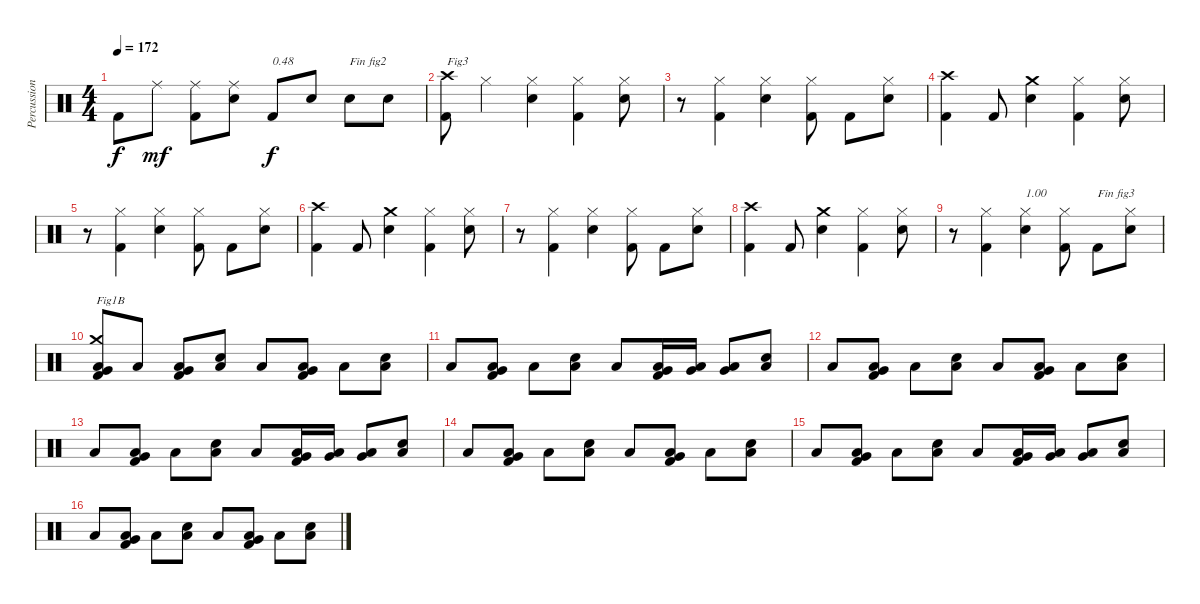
\track ("Percussions" "Percussion") {instrument percussion}
\staff {score}
\articulation defaults
\ts (4 4)
\tempo 172
\clef neutral
\ks c "Kick (hit) 2".8{dy f} "Ride (middle)".8{dy mf}
("Kick (hit) 2" "Ride (middle)").8 ("Electric Snare (hit)" "Ride (middle)").8 "Kick (hit) 2".8{txt "0.48" dy f} "Electric Snare (hit)".8 "Electric Snare (hit)".8{txt "Fin fig2"} "Electric Snare (hit)".8 |
("Kick (hit) 2" "Crash high (hit)").8{txt "Fig3"} "Hi-Hat (closed)".4 ("Electric Snare (hit)" "Hi-Hat (closed)").4 ("Kick (hit) 2" "Hi-Hat (closed)").4 ("Electric Snare (hit)" "Hi-Hat (closed)").8 |
r.8 ("Kick (hit) 2" "Hi-Hat (closed)").4 ("Electric Snare (hit)" "Hi-Hat (closed)").4 ("Kick (hit) 2" "Hi-Hat (closed)").8 "Kick (hit) 2".8 ("Electric Snare (hit)" "Hi-Hat (closed)").8 |
("Kick (hit) 2" "Crash high (hit)").4 "Kick (hit) 2".8 ("Electric Snare (hit)" "Crash medium (hit)").4 ("Kick (hit) 2" "Hi-Hat (closed)").4 ("Electric Snare (hit)" "Hi-Hat (closed)").8 |
r.8 ("Kick (hit) 2" "Hi-Hat (closed)").4 ("Electric Snare (hit)" "Hi-Hat (closed)").4 ("Kick (hit) 2" "Hi-Hat (closed)").8 "Kick (hit) 2".8 ("Electric Snare (hit)" "Hi-Hat (closed)").8 |
("Kick (hit) 2" "Crash high (hit)").4 "Kick (hit) 2".8 ("Electric Snare (hit)" "Crash medium (hit)").4 ("Kick (hit) 2" "Hi-Hat (closed)").4 ("Electric Snare (hit)" "Hi-Hat (closed)").8 |
r.8 ("Kick (hit) 2" "Hi-Hat (closed)").4 ("Electric Snare (hit)" "Hi-Hat (closed)").4 ("Kick (hit) 2" "Hi-Hat (closed)").8 "Kick (hit) 2".8 ("Electric Snare (hit)" "Hi-Hat (closed)").8 |
("Kick (hit) 2" "Crash high (hit)").4 "Kick (hit) 2".8 ("Electric Snare (hit)" "Crash medium (hit)").4 ("Kick (hit) 2" "Hi-Hat (closed)").4 ("Electric Snare (hit)" "Hi-Hat (closed)").8 |
r.8 ("Kick (hit) 2" "Hi-Hat (closed)").4 ("Electric Snare (hit)" "Hi-Hat (closed)").4{txt "1.00"} ("Kick (hit) 2" "Hi-Hat (closed)").8 "Kick (hit) 2".8{txt "Fin fig3"} ("Electric Snare (hit)" "Hi-Hat (closed)").8 |
("Kick (hit) 2" "Low Floor Tom (hit)" "Very Low Tom (hit)" "Crash medium (hit)").8{txt "Fig1B"} "Low Floor Tom (hit)".8 ("Kick (hit) 2" "Low Floor Tom (hit)" "Very Low Tom (hit)").8 ("Electric Snare (hit)" "Low Floor Tom (hit)").8 "Low Floor Tom (hit)".8 ("Kick (hit) 2" "Low Floor Tom (hit)" "Very Low Tom (hit)").8 "Low Floor Tom (hit)".8 ("Electric Snare (hit)" "Low Floor Tom (hit)").8 |
"Low Floor Tom (hit)".8 ("Kick (hit) 2" "Low Floor Tom (hit)" "Very Low Tom (hit)").8 "Low Floor Tom (hit)".8 ("Electric Snare (hit)" "Low Floor Tom (hit)").8 "Low Floor Tom (hit)".8 ("Kick (hit) 2" "Low Floor Tom (hit)" "Very Low Tom (hit)").16 ("Low Floor Tom (hit)" "Very Low Tom (hit)").16 ("Low Floor Tom (hit)" "Very Low Tom (hit)").8 ("Electric Snare (hit)" "Low Floor Tom (hit)").8 |
"Low Floor Tom (hit)".8 ("Kick (hit) 2" "Low Floor Tom (hit)" "Very Low Tom (hit)").8 "Low Floor Tom (hit)".8 ("Electric Snare (hit)" "Low Floor Tom (hit)").8 "Low Floor Tom (hit)".8 ("Kick (hit) 2" "Low Floor Tom (hit)" "Very Low Tom (hit)").8 "Low Floor Tom (hit)".8 ("Electric Snare (hit)" "Low Floor Tom (hit)").8 |
"Low Floor Tom (hit)".8 ("Kick (hit) 2" "Low Floor Tom (hit)" "Very Low Tom (hit)").8 "Low Floor Tom (hit)".8 ("Electric Snare (hit)" "Low Floor Tom (hit)").8 "Low Floor Tom (hit)".8 ("Kick (hit) 2" "Low Floor Tom (hit)" "Very Low Tom (hit)").16 ("Low Floor Tom (hit)" "Very Low Tom (hit)").16 ("Low Floor Tom (hit)" "Very Low Tom (hit)").8 ("Electric Snare (hit)" "Low Floor Tom (hit)").8 |
"Low Floor Tom (hit)".8 ("Kick (hit) 2" "Low Floor Tom (hit)" "Very Low Tom (hit)").8 "Low Floor Tom (hit)".8 ("Electric Snare (hit)" "Low Floor Tom (hit)").8 "Low Floor Tom (hit)".8 ("Kick (hit) 2" "Low Floor Tom (hit)" "Very Low Tom (hit)").8 "Low Floor Tom (hit)".8 ("Electric Snare (hit)" "Low Floor Tom (hit)").8 |
"Low Floor Tom (hit)".8 ("Kick (hit) 2" "Low Floor Tom (hit)" "Very Low Tom (hit)").8 "Low Floor Tom (hit)".8 ("Electric Snare (hit)" "Low Floor Tom (hit)").8 "Low Floor Tom (hit)".8 ("Kick (hit) 2" "Low Floor Tom (hit)" "Very Low Tom (hit)").16 ("Low Floor Tom (hit)" "Very Low Tom (hit)").16 ("Low Floor Tom (hit)" "Very Low Tom (hit)").8 ("Electric Snare (hit)" "Low Floor Tom (hit)").8 |
"Low Floor Tom (hit)".8 ("Kick (hit) 2" "Low Floor Tom (hit)" "Very Low Tom (hit)").8 "Low Floor Tom (hit)".8 ("Electric Snare (hit)" "Low Floor Tom (hit)").8 "Low Floor Tom (hit)".8 ("Kick (hit) 2" "Low Floor Tom (hit)" "Very Low Tom (hit)").8 "Low Floor Tom (hit)".8 ("Electric Snare (hit)" "Low Floor Tom (hit)").8
